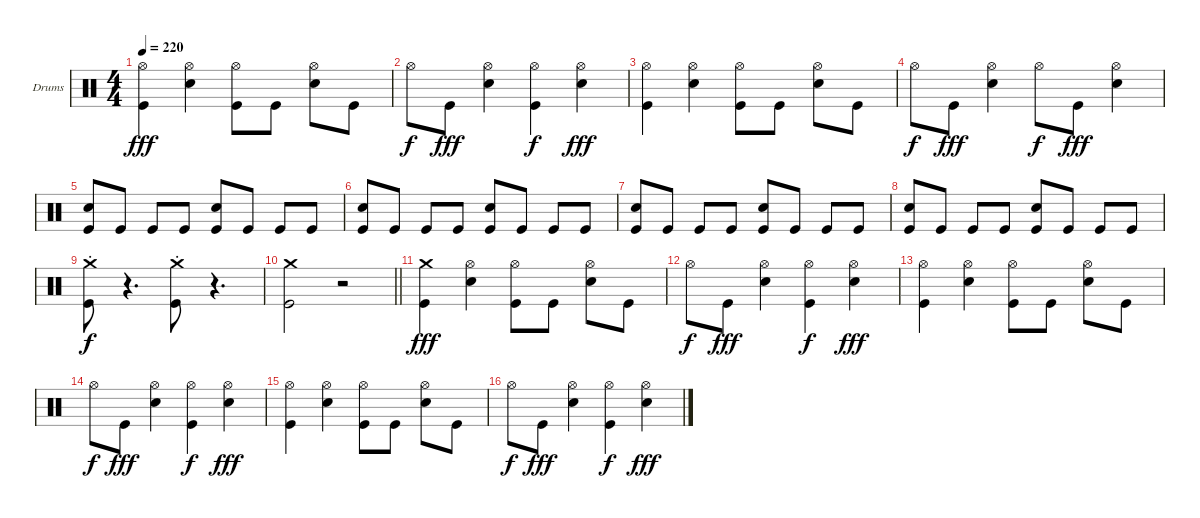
\bracketExtendMode groupsimilarinstruments
\firstSystemTrackNameOrientation horizontal
\otherSystemsTrackNameOrientation horizontal
\track ("Stefan Schwarzmann" "Drums") {instrument percussion}
\staff {score}
\articulation defaults
\ts (4 4)
\tempo 220
\clef neutral
\ks c
("Kick (hit)" "Hi-Hat (open)").4{dy fff} ("Snare (hit) 2" "Hi-Hat (open)").4 ("Kick (hit)" "Hi-Hat (open)").8 "Kick (hit)".8 ("Snare (hit) 2" "Hi-Hat (open)").8 "Kick (hit)".8 |
"Hi-Hat (open)".8{dy f} "Kick (hit)".8{dy fff} ("Snare (hit) 2" "Hi-Hat (open)").4 ("Kick (hit)" "Hi-Hat (open)").4{dy f} ("Snare (hit) 2" "Hi-Hat (open)").4{dy fff} |
("Kick (hit)" "Hi-Hat (open)").4 ("Snare (hit) 2" "Hi-Hat (open)").4 ("Kick (hit)" "Hi-Hat (open)").8 "Kick (hit)".8 ("Snare (hit) 2" "Hi-Hat (open)").8 "Kick (hit)".8 |
"Hi-Hat (open)".8{dy f} "Kick (hit)".8{dy fff} ("Snare (hit) 2" "Hi-Hat (open)").4 "Hi-Hat (open)".8{dy f} "Kick (hit)".8{dy fff} ("Snare (hit) 2" "Hi-Hat (open)").4 |
("Kick (hit)" "Snare (hit) 2").8 "Kick (hit)".8 "Kick (hit)".8 "Kick (hit)".8 ("Kick (hit)" "Snare (hit) 2").8 "Kick (hit)".8 "Kick (hit)".8 "Kick (hit)".8 |
("Kick (hit)" "Snare (hit) 2").8 "Kick (hit)".8 "Kick (hit)".8 "Kick (hit)".8 ("Kick (hit)" "Snare (hit) 2").8 "Kick (hit)".8 "Kick (hit)".8 "Kick (hit)".8 |
("Kick (hit)" "Snare (hit) 2").8 "Kick (hit)".8 "Kick (hit)".8 "Kick (hit)".8 ("Kick (hit)" "Snare (hit) 2").8 "Kick (hit)".8 "Kick (hit)".8 "Kick (hit)".8 |
("Kick (hit)" "Snare (hit) 2").8 "Kick (hit)".8 "Kick (hit)".8 "Kick (hit)".8 ("Kick (hit)" "Snare (hit) 2").8 "Kick (hit)".8 "Kick (hit)".8 "Kick (hit)".8 |
("Kick (hit)"{st} "Crash medium (hit)"{st}).8{dy f} r.4{d} ("Kick (hit)"{st} "Crash medium (hit)"{st}).8 r.4{d} |
\barLineRight lightlight
("Kick (hit)" "Crash medium (hit)").2 r.2 |
("Kick (hit)" "Crash medium (hit)").4{dy fff} ("Snare (hit) 2" "Hi-Hat (open)").4 ("Kick (hit)" "Hi-Hat (open)").8 "Kick (hit)".8 ("Snare (hit) 2" "Hi-Hat (open)").8 "Kick (hit)".8 |
"Hi-Hat (open)".8{dy f} "Kick (hit)".8{dy fff} ("Snare (hit) 2" "Hi-Hat (open)").4 ("Kick (hit)" "Hi-Hat (open)").4{dy f} ("Snare (hit) 2" "Hi-Hat (open)").4{dy fff} |
("Kick (hit)" "Hi-Hat (open)").4 ("Snare (hit) 2" "Hi-Hat (open)").4 ("Kick (hit)" "Hi-Hat (open)").8 "Kick (hit)".8 ("Snare (hit) 2" "Hi-Hat (open)").8 "Kick (hit)".8 |
"Hi-Hat (open)".8{dy f} "Kick (hit)".8{dy fff} ("Snare (hit) 2" "Hi-Hat (open)").4 ("Kick (hit)" "Hi-Hat (open)").4{dy f} ("Snare (hit) 2" "Hi-Hat (open)").4{dy fff} |
("Kick (hit)" "Hi-Hat (open)").4 ("Snare (hit) 2" "Hi-Hat (open)").4 ("Kick (hit)" "Hi-Hat (open)").8 "Kick (hit)".8 ("Snare (hit) 2" "Hi-Hat (open)").8 "Kick (hit)".8 |
"Hi-Hat (open)".8{dy f} "Kick (hit)".8{dy fff} ("Snare (hit) 2" "Hi-Hat (open)").4 ("Kick (hit)" "Hi-Hat (open)").4{dy f} ("Snare (hit) 2" "Hi-Hat (open)").4{dy fff}
